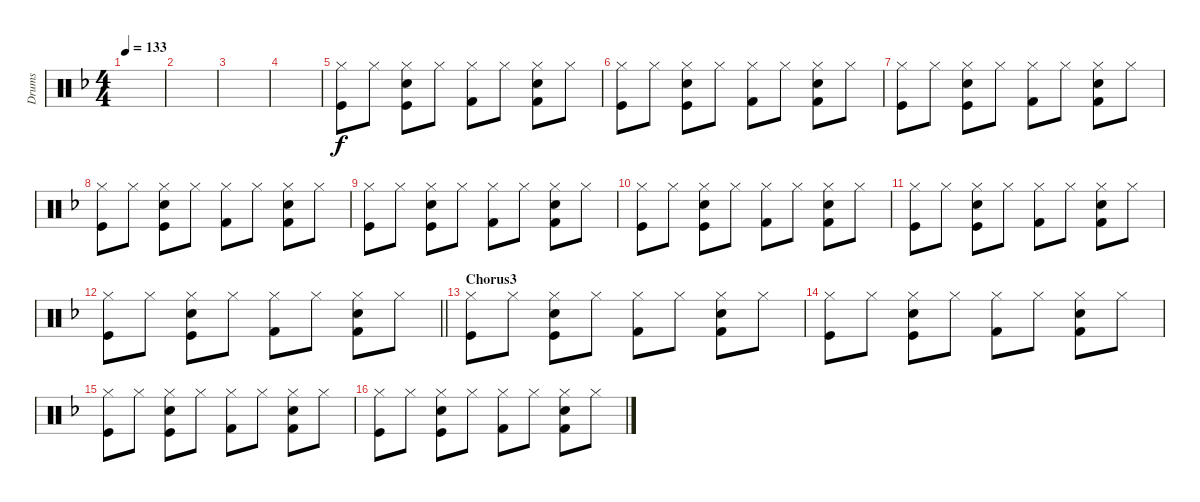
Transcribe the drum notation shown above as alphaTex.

\track ("Drums" "Drums") {instrument percussion}
\staff {score}
\articulation defaults
\ts (4 4)
\tempo 133
\clef neutral
\ks f
|
|
|
|
("Hi-Hat (closed)" "Kick (hit)").8 "Hi-Hat (closed)".8 ("Hi-Hat (closed)" "Kick (hit)" "Electric Snare (hit)").8 "Hi-Hat (closed)".8 ("Hi-Hat (closed)" "Kick (hit) 2").8 "Hi-Hat (closed)".8 ("Kick (hit) 2" "Hi-Hat (closed)" "Electric Snare (hit)").8 "Hi-Hat (closed)".8 |
("Hi-Hat (closed)" "Kick (hit)").8 "Hi-Hat (closed)".8 ("Hi-Hat (closed)" "Kick (hit)" "Electric Snare (hit)").8 "Hi-Hat (closed)".8 ("Hi-Hat (closed)" "Kick (hit) 2").8 "Hi-Hat (closed)".8 ("Kick (hit) 2" "Hi-Hat (closed)" "Electric Snare (hit)").8 "Hi-Hat (closed)".8 |
("Hi-Hat (closed)" "Kick (hit)").8 "Hi-Hat (closed)".8 ("Hi-Hat (closed)" "Kick (hit)" "Electric Snare (hit)").8 "Hi-Hat (closed)".8 ("Hi-Hat (closed)" "Kick (hit) 2").8 "Hi-Hat (closed)".8 ("Kick (hit) 2" "Hi-Hat (closed)" "Electric Snare (hit)").8 "Hi-Hat (closed)".8 |
("Hi-Hat (closed)" "Kick (hit)").8 "Hi-Hat (closed)".8 ("Hi-Hat (closed)" "Kick (hit)" "Electric Snare (hit)").8 "Hi-Hat (closed)".8 ("Hi-Hat (closed)" "Kick (hit) 2").8 "Hi-Hat (closed)".8 ("Kick (hit) 2" "Hi-Hat (closed)" "Electric Snare (hit)").8 "Hi-Hat (closed)".8 |
("Hi-Hat (closed)" "Kick (hit)").8 "Hi-Hat (closed)".8 ("Hi-Hat (closed)" "Kick (hit)" "Electric Snare (hit)").8 "Hi-Hat (closed)".8 ("Hi-Hat (closed)" "Kick (hit) 2").8 "Hi-Hat (closed)".8 ("Kick (hit) 2" "Hi-Hat (closed)" "Electric Snare (hit)").8 "Hi-Hat (closed)".8 |
("Hi-Hat (closed)" "Kick (hit)").8 "Hi-Hat (closed)".8 ("Hi-Hat (closed)" "Kick (hit)" "Electric Snare (hit)").8 "Hi-Hat (closed)".8 ("Hi-Hat (closed)" "Kick (hit) 2").8 "Hi-Hat (closed)".8 ("Kick (hit) 2" "Hi-Hat (closed)" "Electric Snare (hit)").8 "Hi-Hat (closed)".8 |
("Hi-Hat (closed)" "Kick (hit)").8 "Hi-Hat (closed)".8 ("Hi-Hat (closed)" "Kick (hit)" "Electric Snare (hit)").8 "Hi-Hat (closed)".8 ("Hi-Hat (closed)" "Kick (hit) 2").8 "Hi-Hat (closed)".8 ("Kick (hit) 2" "Hi-Hat (closed)" "Electric Snare (hit)").8 "Hi-Hat (closed)".8 |
\barLineRight lightlight
("Hi-Hat (closed)" "Kick (hit)").8 "Hi-Hat (closed)".8 ("Hi-Hat (closed)" "Kick (hit)" "Electric Snare (hit)").8 "Hi-Hat (closed)".8 ("Hi-Hat (closed)" "Kick (hit) 2").8 "Hi-Hat (closed)".8 ("Kick (hit) 2" "Hi-Hat (closed)" "Electric Snare (hit)").8 "Hi-Hat (closed)".8 |
\section ("" "Chorus3")
("Hi-Hat (closed)" "Kick (hit)").8 "Hi-Hat (closed)".8 ("Hi-Hat (closed)" "Kick (hit)" "Electric Snare (hit)").8 "Hi-Hat (closed)".8 ("Hi-Hat (closed)" "Kick (hit) 2").8 "Hi-Hat (closed)".8 ("Kick (hit) 2" "Hi-Hat (closed)" "Electric Snare (hit)").8 "Hi-Hat (closed)".8 |
("Hi-Hat (closed)" "Kick (hit)").8 "Hi-Hat (closed)".8 ("Hi-Hat (closed)" "Kick (hit)" "Electric Snare (hit)").8 "Hi-Hat (closed)".8 ("Hi-Hat (closed)" "Kick (hit) 2").8 "Hi-Hat (closed)".8 ("Kick (hit) 2" "Hi-Hat (closed)" "Electric Snare (hit)").8 "Hi-Hat (closed)".8 |
("Hi-Hat (closed)" "Kick (hit)").8 "Hi-Hat (closed)".8 ("Hi-Hat (closed)" "Kick (hit)" "Electric Snare (hit)").8 "Hi-Hat (closed)".8 ("Hi-Hat (closed)" "Kick (hit) 2").8 "Hi-Hat (closed)".8 ("Kick (hit) 2" "Hi-Hat (closed)" "Electric Snare (hit)").8 "Hi-Hat (closed)".8 |
("Hi-Hat (closed)" "Kick (hit)").8 "Hi-Hat (closed)".8 ("Hi-Hat (closed)" "Kick (hit)" "Electric Snare (hit)").8 "Hi-Hat (closed)".8 ("Hi-Hat (closed)" "Kick (hit) 2").8 "Hi-Hat (closed)".8 ("Kick (hit) 2" "Hi-Hat (closed)" "Electric Snare (hit)").8 "Hi-Hat (closed)".8
